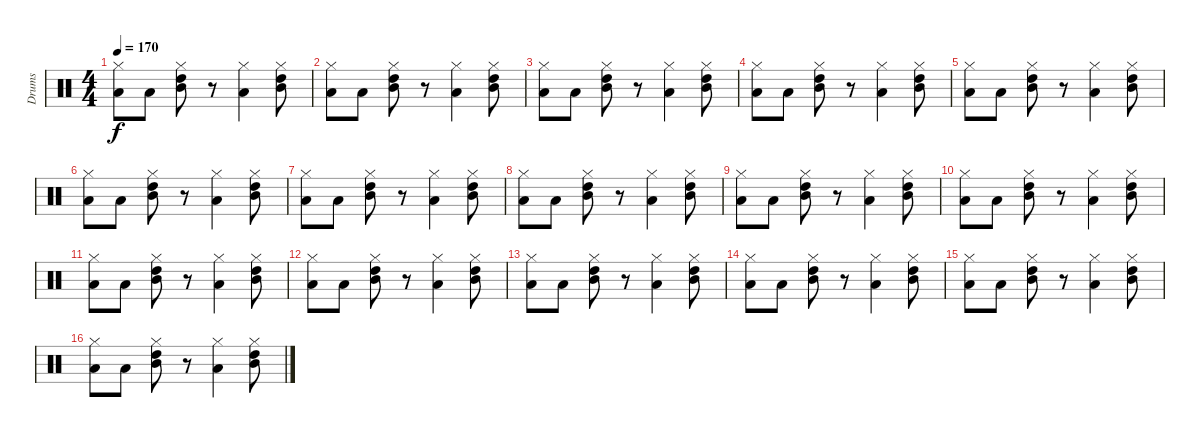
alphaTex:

\track ("Drums" "Drums") {instrument percussion}
\staff {score}
\articulation defaults
\ts (4 4)
\tempo 170
\clef neutral
\ks c
("Hi-Hat (closed)" "Low Floor Tom (hit)").8{dy f} "Low Floor Tom (hit)".8 ("Hi-Hat (closed)" "Mid Tom (hit)" "High Tom (hit)").8 r.8 ("Hi-Hat (closed)" "Low Floor Tom (hit)").4 ("Hi-Hat (closed)" "Mid Tom (hit)" "High Tom (hit)").8 |
("Hi-Hat (closed)" "Low Floor Tom (hit)").8 "Low Floor Tom (hit)".8 ("Hi-Hat (closed)" "Mid Tom (hit)" "High Tom (hit)").8 r.8 ("Hi-Hat (closed)" "Low Floor Tom (hit)").4 ("Hi-Hat (closed)" "Mid Tom (hit)" "High Tom (hit)").8 |
("Hi-Hat (closed)" "Low Floor Tom (hit)").8 "Low Floor Tom (hit)".8 ("Hi-Hat (closed)" "Mid Tom (hit)" "High Tom (hit)").8 r.8 ("Hi-Hat (closed)" "Low Floor Tom (hit)").4 ("Hi-Hat (closed)" "Mid Tom (hit)" "High Tom (hit)").8 |
("Hi-Hat (closed)" "Low Floor Tom (hit)").8 "Low Floor Tom (hit)".8 ("Hi-Hat (closed)" "Mid Tom (hit)" "High Tom (hit)").8 r.8 ("Hi-Hat (closed)" "Low Floor Tom (hit)").4 ("Hi-Hat (closed)" "Mid Tom (hit)" "High Tom (hit)").8 |
("Hi-Hat (closed)" "Low Floor Tom (hit)").8 "Low Floor Tom (hit)".8 ("Hi-Hat (closed)" "Mid Tom (hit)" "High Tom (hit)").8 r.8 ("Hi-Hat (closed)" "Low Floor Tom (hit)").4 ("Hi-Hat (closed)" "Mid Tom (hit)" "High Tom (hit)").8 |
("Hi-Hat (closed)" "Low Floor Tom (hit)").8 "Low Floor Tom (hit)".8 ("Hi-Hat (closed)" "Mid Tom (hit)" "High Tom (hit)").8 r.8 ("Hi-Hat (closed)" "Low Floor Tom (hit)").4 ("Hi-Hat (closed)" "Mid Tom (hit)" "High Tom (hit)").8 |
("Hi-Hat (closed)" "Low Floor Tom (hit)").8 "Low Floor Tom (hit)".8 ("Hi-Hat (closed)" "Mid Tom (hit)" "High Tom (hit)").8 r.8 ("Hi-Hat (closed)" "Low Floor Tom (hit)").4 ("Hi-Hat (closed)" "Mid Tom (hit)" "High Tom (hit)").8 |
("Hi-Hat (closed)" "Low Floor Tom (hit)").8 "Low Floor Tom (hit)".8 ("Hi-Hat (closed)" "Mid Tom (hit)" "High Tom (hit)").8 r.8 ("Hi-Hat (closed)" "Low Floor Tom (hit)").4 ("Hi-Hat (closed)" "Mid Tom (hit)" "High Tom (hit)").8 |
("Hi-Hat (closed)" "Low Floor Tom (hit)").8 "Low Floor Tom (hit)".8 ("Hi-Hat (closed)" "Mid Tom (hit)" "High Tom (hit)").8 r.8 ("Hi-Hat (closed)" "Low Floor Tom (hit)").4 ("Hi-Hat (closed)" "Mid Tom (hit)" "High Tom (hit)").8 |
("Hi-Hat (closed)" "Low Floor Tom (hit)").8 "Low Floor Tom (hit)".8 ("Hi-Hat (closed)" "Mid Tom (hit)" "High Tom (hit)").8 r.8 ("Hi-Hat (closed)" "Low Floor Tom (hit)").4 ("Hi-Hat (closed)" "Mid Tom (hit)" "High Tom (hit)").8 |
("Hi-Hat (closed)" "Low Floor Tom (hit)").8 "Low Floor Tom (hit)".8 ("Hi-Hat (closed)" "Mid Tom (hit)" "High Tom (hit)").8 r.8 ("Hi-Hat (closed)" "Low Floor Tom (hit)").4 ("Hi-Hat (closed)" "Mid Tom (hit)" "High Tom (hit)").8 |
("Hi-Hat (closed)" "Low Floor Tom (hit)").8 "Low Floor Tom (hit)".8 ("Hi-Hat (closed)" "Mid Tom (hit)" "High Tom (hit)").8 r.8 ("Hi-Hat (closed)" "Low Floor Tom (hit)").4 ("Hi-Hat (closed)" "Mid Tom (hit)" "High Tom (hit)").8 |
("Hi-Hat (closed)" "Low Floor Tom (hit)").8 "Low Floor Tom (hit)".8 ("Hi-Hat (closed)" "Mid Tom (hit)" "High Tom (hit)").8 r.8 ("Hi-Hat (closed)" "Low Floor Tom (hit)").4 ("Hi-Hat (closed)" "Mid Tom (hit)" "High Tom (hit)").8 |
("Hi-Hat (closed)" "Low Floor Tom (hit)").8 "Low Floor Tom (hit)".8 ("Hi-Hat (closed)" "Mid Tom (hit)" "High Tom (hit)").8 r.8 ("Hi-Hat (closed)" "Low Floor Tom (hit)").4 ("Hi-Hat (closed)" "Mid Tom (hit)" "High Tom (hit)").8 |
("Hi-Hat (closed)" "Low Floor Tom (hit)").8 "Low Floor Tom (hit)".8 ("Hi-Hat (closed)" "Mid Tom (hit)" "High Tom (hit)").8 r.8 ("Hi-Hat (closed)" "Low Floor Tom (hit)").4 ("Hi-Hat (closed)" "Mid Tom (hit)" "High Tom (hit)").8 |
("Hi-Hat (closed)" "Low Floor Tom (hit)").8 "Low Floor Tom (hit)".8 ("Hi-Hat (closed)" "Mid Tom (hit)" "High Tom (hit)").8 r.8 ("Hi-Hat (closed)" "Low Floor Tom (hit)").4 ("Hi-Hat (closed)" "Mid Tom (hit)" "High Tom (hit)").8
